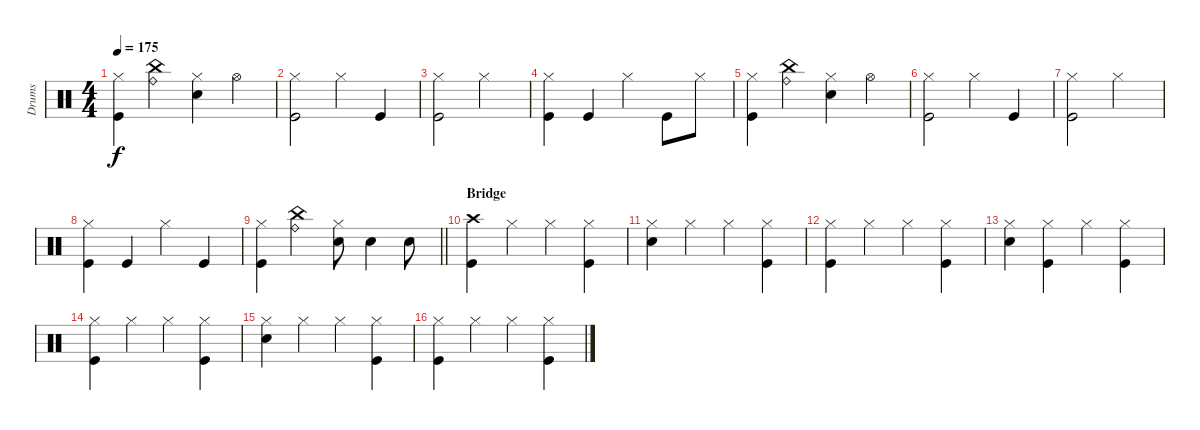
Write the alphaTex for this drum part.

\track ("Drums" "Drums") {instrument percussion}
\staff {score}
\articulation defaults
\ts (4 4)
\tempo 175
\clef neutral
\ks c
("Hi-Hat (closed)" "Kick (hit)").4{dy f} ("China (hit)" "Ride (bell)").4 ("Hi-Hat (closed)" "Electric Snare (hit)").4 "Hi-Hat (open)".4 |
("Hi-Hat (closed)" "Kick (hit)").2 "Hi-Hat (closed)".4 "Kick (hit)".4 |
("Hi-Hat (closed)" "Kick (hit)").2 "Hi-Hat (closed)".2 |
("Hi-Hat (closed)" "Kick (hit)").4 "Kick (hit)".4 "Hi-Hat (closed)".4 "Kick (hit)".8 "Hi-Hat (closed)".8 |
("Hi-Hat (closed)" "Kick (hit)").4 ("China (hit)" "Ride (bell)").4 ("Hi-Hat (closed)" "Electric Snare (hit)").4 "Hi-Hat (open)".4 |
("Hi-Hat (closed)" "Kick (hit)").2 "Hi-Hat (closed)".4 "Kick (hit)".4 |
("Hi-Hat (closed)" "Kick (hit)").2 "Hi-Hat (closed)".2 |
("Hi-Hat (closed)" "Kick (hit)").4 "Kick (hit)".4 "Hi-Hat (closed)".4 "Kick (hit)".4 |
\barLineRight lightlight
("Hi-Hat (closed)" "Kick (hit)").4 ("China (hit)" "Ride (bell)").4 ("Hi-Hat (closed)" "Electric Snare (hit)").8 "Electric Snare (hit)".4 "Electric Snare (hit)".8 |
\section ("" "Bridge")
("Crash high (hit)" "Kick (hit)").4 "Hi-Hat (closed)".4 "Hi-Hat (closed)".4 ("Hi-Hat (closed)" "Kick (hit)").4 |
("Hi-Hat (closed)" "Electric Snare (hit)").4 "Hi-Hat (closed)".4 "Hi-Hat (closed)".4 ("Hi-Hat (closed)" "Kick (hit)").4 |
("Hi-Hat (closed)" "Kick (hit)").4 "Hi-Hat (closed)".4 "Hi-Hat (closed)".4 ("Hi-Hat (closed)" "Kick (hit)").4 |
("Hi-Hat (closed)" "Electric Snare (hit)").4 ("Hi-Hat (closed)" "Kick (hit)").4 "Hi-Hat (closed)".4 ("Hi-Hat (closed)" "Kick (hit)").4 |
("Hi-Hat (closed)" "Kick (hit)").4 "Hi-Hat (closed)".4 "Hi-Hat (closed)".4 ("Hi-Hat (closed)" "Kick (hit)").4 |
("Hi-Hat (closed)" "Electric Snare (hit)").4 "Hi-Hat (closed)".4 "Hi-Hat (closed)".4 ("Hi-Hat (closed)" "Kick (hit)").4 |
("Hi-Hat (closed)" "Kick (hit)").4 "Hi-Hat (closed)".4 "Hi-Hat (closed)".4 ("Hi-Hat (closed)" "Kick (hit)").4
